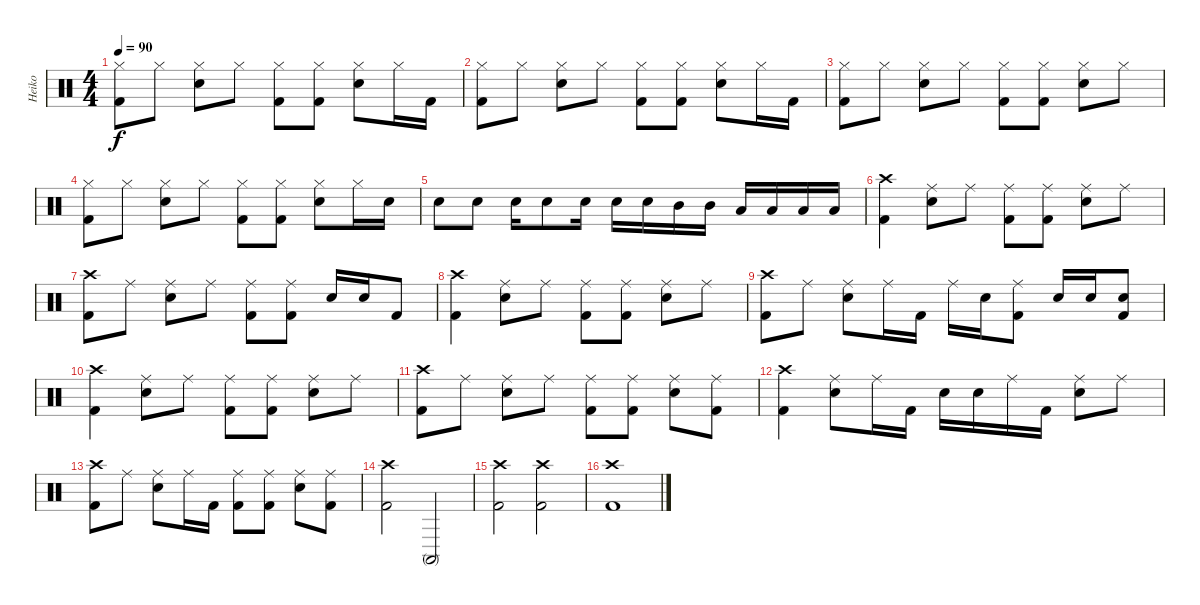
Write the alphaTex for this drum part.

\track ("Heiko" "Heiko") {instrument percussion}
\staff {score}
\articulation defaults
\ts (4 4)
\tempo 90
\clef neutral
\ks c
("Hi-Hat (closed)" "Kick (hit) 2").8{dy f} "Hi-Hat (closed)".8 ("Hi-Hat (closed)" "Electric Snare (hit)").8 "Hi-Hat (closed)".8 ("Hi-Hat (closed)" "Kick (hit) 2").8 ("Hi-Hat (closed)" "Kick (hit) 2").8 ("Hi-Hat (closed)" "Electric Snare (hit)").8 "Hi-Hat (closed)".16 "Kick (hit) 2".16 |
("Hi-Hat (closed)" "Kick (hit) 2").8 "Hi-Hat (closed)".8 ("Hi-Hat (closed)" "Electric Snare (hit)").8 "Hi-Hat (closed)".8 ("Hi-Hat (closed)" "Kick (hit) 2").8 ("Hi-Hat (closed)" "Kick (hit) 2").8 ("Hi-Hat (closed)" "Electric Snare (hit)").8 "Hi-Hat (closed)".16 "Kick (hit) 2".16 |
("Hi-Hat (closed)" "Kick (hit) 2").8 "Hi-Hat (closed)".8 ("Hi-Hat (closed)" "Electric Snare (hit)").8 "Hi-Hat (closed)".8 ("Hi-Hat (closed)" "Kick (hit) 2").8 ("Hi-Hat (closed)" "Kick (hit) 2").8 ("Hi-Hat (closed)" "Electric Snare (hit)").8 "Hi-Hat (closed)".8 |
("Hi-Hat (closed)" "Kick (hit) 2").8 "Hi-Hat (closed)".8 ("Hi-Hat (closed)" "Electric Snare (hit)").8 "Hi-Hat (closed)".8 ("Hi-Hat (closed)" "Kick (hit) 2").8 ("Hi-Hat (closed)" "Kick (hit) 2").8 ("Hi-Hat (closed)" "Electric Snare (hit)").8 "Hi-Hat (closed)".16 "Electric Snare (hit)".16 |
"Electric Snare (hit)".8 "Electric Snare (hit)".8 "Electric Snare (hit)".16 "Electric Snare (hit)".8 "Electric Snare (hit)".16 "Electric Snare (hit)".16 "Electric Snare (hit)".16 "Mid Tom (hit)".16 "Mid Tom (hit)".16 "Low Tom (hit)".16 "Low Tom (hit)".16 "Low Tom (hit)".16 "Low Tom (hit)".16 |
("Crash high (hit)" "Kick (hit) 2").4 ("Ride (middle)" "Electric Snare (hit)").8 "Ride (middle)".8 ("Ride (middle)" "Kick (hit) 2").8 ("Ride (middle)" "Kick (hit) 2").8 ("Ride (middle)" "Electric Snare (hit)").8 "Ride (middle)".8 |
("Crash high (hit)" "Kick (hit) 2").8 "Ride (middle)".8 ("Ride (middle)" "Electric Snare (hit)").8 "Ride (middle)".8 ("Ride (middle)" "Kick (hit) 2").8 ("Ride (middle)" "Kick (hit) 2").8 "Electric Snare (hit)".16 "Electric Snare (hit)".16 "Kick (hit) 2".8 |
("Crash high (hit)" "Kick (hit) 2").4 ("Ride (middle)" "Electric Snare (hit)").8 "Ride (middle)".8 ("Ride (middle)" "Kick (hit) 2").8 ("Ride (middle)" "Kick (hit) 2").8 ("Ride (middle)" "Electric Snare (hit)").8 "Ride (middle)".8 |
("Crash high (hit)" "Kick (hit) 2").8 "Ride (middle)".8 ("Ride (middle)" "Electric Snare (hit)").8 "Ride (middle)".16 "Kick (hit) 2".16 "Ride (middle)".16 "Electric Snare (hit)".16 ("Ride (middle)" "Kick (hit) 2").8 "Electric Snare (hit)".16 "Electric Snare (hit)".16 ("Electric Snare (hit)" "Kick (hit) 2").8 |
("Crash high (hit)" "Kick (hit) 2").4 ("Ride (middle)" "Electric Snare (hit)").8 "Ride (middle)".8 ("Ride (middle)" "Kick (hit) 2").8 ("Ride (middle)" "Kick (hit) 2").8 ("Ride (middle)" "Electric Snare (hit)").8 "Ride (middle)".8 |
("Crash high (hit)" "Kick (hit) 2").8 "Ride (middle)".8 ("Ride (middle)" "Electric Snare (hit)").8 "Ride (middle)".8 ("Ride (middle)" "Kick (hit) 2").8 ("Ride (middle)" "Kick (hit) 2").8 ("Ride (middle)" "Electric Snare (hit)").8 ("Ride (middle)" "Kick (hit) 2").8 |
("Crash high (hit)" "Kick (hit) 2").4 ("Ride (middle)" "Electric Snare (hit)").8 "Ride (middle)".16 "Kick (hit) 2".16 "Electric Snare (hit)".16 "Electric Snare (hit)".16 "Ride (middle)".16 "Kick (hit) 2".16 ("Ride (middle)" "Electric Snare (hit)").8 "Ride (middle)".8 |
("Crash high (hit)" "Kick (hit) 2").8 "Ride (middle)".8 ("Ride (middle)" "Electric Snare (hit)").8 "Ride (middle)".16 "Kick (hit) 2".16 ("Ride (middle)" "Kick (hit) 2").8 ("Ride (middle)" "Kick (hit) 2").8 ("Ride (middle)" "Electric Snare (hit)").8 ("Ride (middle)" "Kick (hit) 2").8 |
("Crash high (hit)" "Kick (hit) 2").2 "Conga high (mute)".2 |
("Crash high (hit)" "Kick (hit) 2").2 ("Crash high (hit)" "Kick (hit) 2").2 |
("Crash high (hit)" "Kick (hit) 2").1
